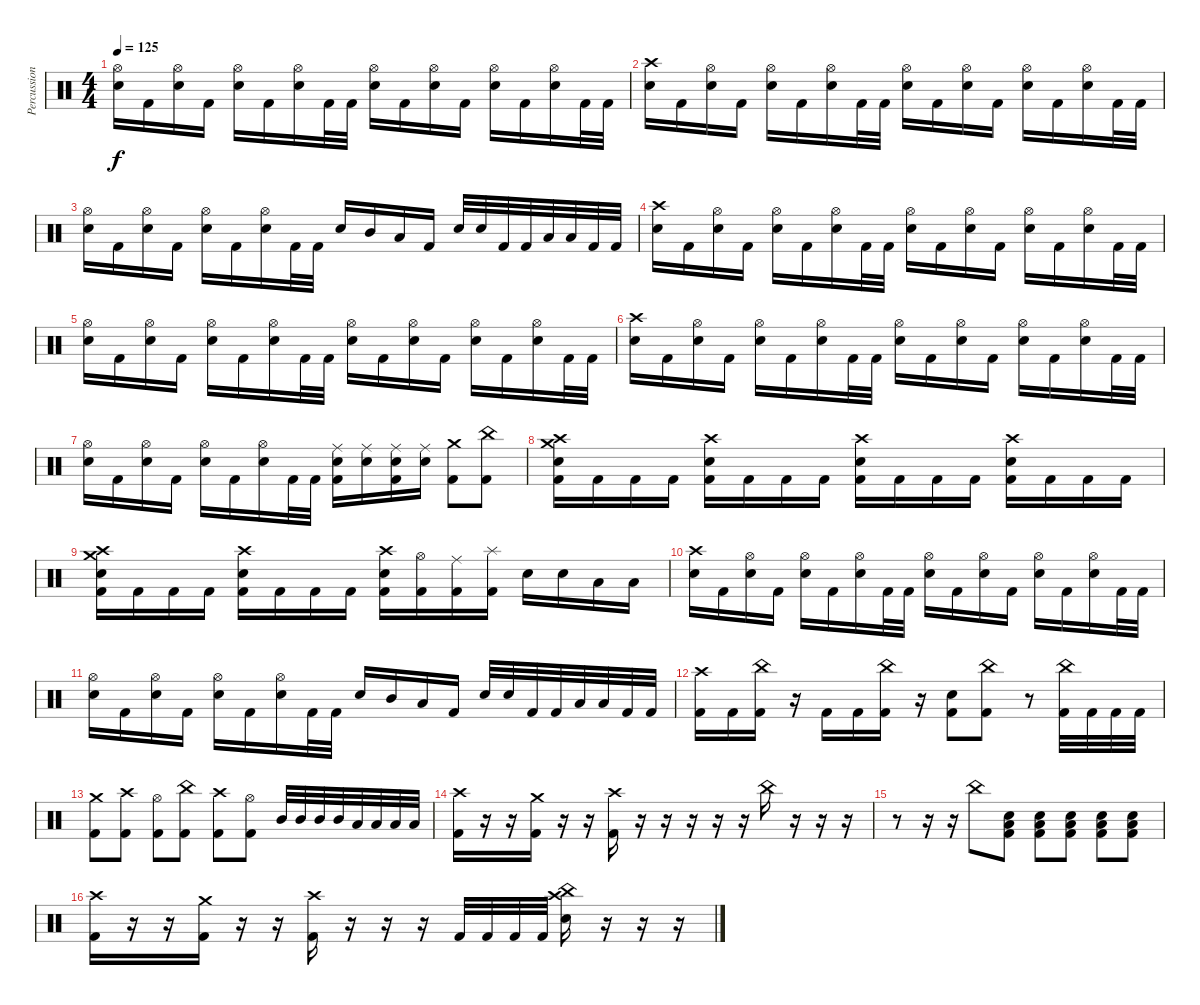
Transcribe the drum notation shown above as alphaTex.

\track ("Percussion" "Percussion") {instrument percussion}
\staff {score}
\articulation defaults
\ts (4 4)
\tempo 125
\clef neutral
\ks c
("Hi-Hat (open)" "Electric Snare (hit)").16{dy f} "Kick (hit) 2".16 ("Hi-Hat (open)" "Electric Snare (hit)").16 "Kick (hit) 2".16 ("Hi-Hat (open)" "Electric Snare (hit)").16 "Kick (hit) 2".16 ("Hi-Hat (open)" "Electric Snare (hit)").16 "Kick (hit) 2".32 "Kick (hit) 2".32 ("Hi-Hat (open)" "Electric Snare (hit)").16 "Kick (hit) 2".16 ("Hi-Hat (open)" "Electric Snare (hit)").16 "Kick (hit) 2".16 ("Hi-Hat (open)" "Electric Snare (hit)").16 "Kick (hit) 2".16 ("Hi-Hat (open)" "Electric Snare (hit)").16 "Kick (hit) 2".32 "Kick (hit) 2".32 |
("Crash high (hit)" "Electric Snare (hit)").16 "Kick (hit) 2".16 ("Hi-Hat (open)" "Electric Snare (hit)").16 "Kick (hit) 2".16 ("Hi-Hat (open)" "Electric Snare (hit)").16 "Kick (hit) 2".16 ("Hi-Hat (open)" "Electric Snare (hit)").16 "Kick (hit) 2".32 "Kick (hit) 2".32 ("Hi-Hat (open)" "Electric Snare (hit)").16 "Kick (hit) 2".16 ("Hi-Hat (open)" "Electric Snare (hit)").16 "Kick (hit) 2".16 ("Hi-Hat (open)" "Electric Snare (hit)").16 "Kick (hit) 2".16 ("Hi-Hat (open)" "Electric Snare (hit)").16 "Kick (hit) 2".32 "Kick (hit) 2".32 |
("Hi-Hat (open)" "Electric Snare (hit)").16 "Kick (hit) 2".16 ("Hi-Hat (open)" "Electric Snare (hit)").16 "Kick (hit) 2".16 ("Hi-Hat (open)" "Electric Snare (hit)").16 "Kick (hit) 2".16 ("Hi-Hat (open)" "Electric Snare (hit)").16 "Kick (hit) 2".32 "Kick (hit) 2".32 "Electric Snare (hit)".16 "Mid Tom (hit)".16 "Low Tom (hit)".16 "Kick (hit) 2".16 "Electric Snare (hit)".32 "Electric Snare (hit)".32 "Kick (hit) 2".32 "Kick (hit) 2".32 "Low Tom (hit)".32 "Low Tom (hit)".32 "Kick (hit) 2".32 "Kick (hit) 2".32 |
("Crash high (hit)" "Electric Snare (hit)").16 "Kick (hit) 2".16 ("Hi-Hat (open)" "Electric Snare (hit)").16 "Kick (hit) 2".16 ("Hi-Hat (open)" "Electric Snare (hit)").16 "Kick (hit) 2".16 ("Hi-Hat (open)" "Electric Snare (hit)").16 "Kick (hit) 2".32 "Kick (hit) 2".32 ("Hi-Hat (open)" "Electric Snare (hit)").16 "Kick (hit) 2".16 ("Hi-Hat (open)" "Electric Snare (hit)").16 "Kick (hit) 2".16 ("Hi-Hat (open)" "Electric Snare (hit)").16 "Kick (hit) 2".16 ("Hi-Hat (open)" "Electric Snare (hit)").16 "Kick (hit) 2".32 "Kick (hit) 2".32 |
("Hi-Hat (open)" "Electric Snare (hit)").16 "Kick (hit) 2".16 ("Hi-Hat (open)" "Electric Snare (hit)").16 "Kick (hit) 2".16 ("Hi-Hat (open)" "Electric Snare (hit)").16 "Kick (hit) 2".16 ("Hi-Hat (open)" "Electric Snare (hit)").16 "Kick (hit) 2".32 "Kick (hit) 2".32 ("Hi-Hat (open)" "Electric Snare (hit)").16 "Kick (hit) 2".16 ("Hi-Hat (open)" "Electric Snare (hit)").16 "Kick (hit) 2".16 ("Hi-Hat (open)" "Electric Snare (hit)").16 "Kick (hit) 2".16 ("Hi-Hat (open)" "Electric Snare (hit)").16 "Kick (hit) 2".32 "Kick (hit) 2".32 |
("Crash high (hit)" "Electric Snare (hit)").16 "Kick (hit) 2".16 ("Hi-Hat (open)" "Electric Snare (hit)").16 "Kick (hit) 2".16 ("Hi-Hat (open)" "Electric Snare (hit)").16 "Kick (hit) 2".16 ("Hi-Hat (open)" "Electric Snare (hit)").16 "Kick (hit) 2".32 "Kick (hit) 2".32 ("Hi-Hat (open)" "Electric Snare (hit)").16 "Kick (hit) 2".16 ("Hi-Hat (open)" "Electric Snare (hit)").16 "Kick (hit) 2".16 ("Hi-Hat (open)" "Electric Snare (hit)").16 "Kick (hit) 2".16 ("Hi-Hat (open)" "Electric Snare (hit)").16 "Kick (hit) 2".32 "Kick (hit) 2".32 |
("Hi-Hat (open)" "Electric Snare (hit)").16 "Kick (hit) 2".16 ("Hi-Hat (open)" "Electric Snare (hit)").16 "Kick (hit) 2".16 ("Hi-Hat (open)" "Electric Snare (hit)").16 "Kick (hit) 2".16 ("Hi-Hat (open)" "Electric Snare (hit)").16 "Kick (hit) 2".32 "Kick (hit) 2".32 ("Ride (middle)" "Electric Snare (hit)" "Kick (hit) 2").16 ("Ride (middle)" "Electric Snare (hit)").16 ("Ride (middle)" "Electric Snare (hit)" "Kick (hit) 2").16 ("Ride (middle)" "Electric Snare (hit)").16 ("Crash medium (hit)" "Kick (hit) 2").8 ("China (hit)" "Kick (hit) 2").8 |
("Crash high (hit)" "Crash medium (hit)" "Electric Snare (hit)" "Kick (hit) 2").16 "Kick (hit) 2".16 "Kick (hit) 2".16 "Kick (hit) 2".16 ("Crash high (hit)" "Electric Snare (hit)" "Kick (hit) 2").16 "Kick (hit) 2".16 "Kick (hit) 2".16 "Kick (hit) 2".16 ("Crash high (hit)" "Electric Snare (hit)" "Kick (hit) 2").16 "Kick (hit) 2".16 "Kick (hit) 2".16 "Kick (hit) 2".16 ("Crash high (hit)" "Electric Snare (hit)" "Kick (hit) 2").16 "Kick (hit) 2".16 "Kick (hit) 2".16 "Kick (hit) 2".16 |
("Crash high (hit)" "Crash medium (hit)" "Electric Snare (hit)" "Kick (hit) 2").16 "Kick (hit) 2".16 "Kick (hit) 2".16 "Kick (hit) 2".16 ("Crash high (hit)" "Electric Snare (hit)" "Kick (hit) 2").16 "Kick (hit) 2".16 "Kick (hit) 2".16 "Kick (hit) 2".16 ("Crash high (hit)" "Electric Snare (hit)" "Kick (hit) 2").16 ("Hi-Hat (open)" "Kick (hit) 2").16 ("Ride (middle)" "Kick (hit) 2").16 ("Splash (hit)" "Kick (hit) 2").16 "Electric Snare (hit)".16 "Electric Snare (hit)".16 "Low Tom (hit)".16 "Low Tom (hit)".16 |
("Crash high (hit)" "Electric Snare (hit)").16 "Kick (hit) 2".16 ("Hi-Hat (open)" "Electric Snare (hit)").16 "Kick (hit) 2".16 ("Hi-Hat (open)" "Electric Snare (hit)").16 "Kick (hit) 2".16 ("Hi-Hat (open)" "Electric Snare (hit)").16 "Kick (hit) 2".32 "Kick (hit) 2".32 ("Hi-Hat (open)" "Electric Snare (hit)").16 "Kick (hit) 2".16 ("Hi-Hat (open)" "Electric Snare (hit)").16 "Kick (hit) 2".16 ("Hi-Hat (open)" "Electric Snare (hit)").16 "Kick (hit) 2".16 ("Hi-Hat (open)" "Electric Snare (hit)").16 "Kick (hit) 2".32 "Kick (hit) 2".32 |
("Hi-Hat (open)" "Electric Snare (hit)").16 "Kick (hit) 2".16 ("Hi-Hat (open)" "Electric Snare (hit)").16 "Kick (hit) 2".16 ("Hi-Hat (open)" "Electric Snare (hit)").16 "Kick (hit) 2".16 ("Hi-Hat (open)" "Electric Snare (hit)").16 "Kick (hit) 2".32 "Kick (hit) 2".32 "Electric Snare (hit)".16 "Mid Tom (hit)".16 "Low Tom (hit)".16 "Kick (hit) 2".16 "Electric Snare (hit)".32 "Electric Snare (hit)".32 "Kick (hit) 2".32 "Kick (hit) 2".32 "Low Tom (hit)".32 "Low Tom (hit)".32 "Kick (hit) 2".32 "Kick (hit) 2".32 |
("Crash high (hit)" "Kick (hit) 2").16 "Kick (hit) 2".16 ("China (hit)" "Kick (hit) 2").16 r.16 "Kick (hit) 2".16 "Kick (hit) 2".16 ("China (hit)" "Kick (hit) 2").16 r.16 ("Electric Snare (hit)" "Kick (hit) 2").8 ("China (hit)" "Kick (hit) 2").8 r.8 ("China (hit)" "Kick (hit) 2").32 "Kick (hit) 2".32 "Kick (hit) 2".32 "Kick (hit) 2".32 |
("Crash medium (hit)" "Kick (hit) 2").8 ("Crash high (hit)" "Kick (hit) 2").8 ("Hi-Hat (open)" "Kick (hit) 2").8 ("China (hit)" "Kick (hit) 2").8 ("Crash high (hit)" "Kick (hit) 2").8 ("Hi-Hat (open)" "Kick (hit) 2").8 "Mid Tom (hit)".32 "Mid Tom (hit)".32 "Mid Tom (hit)".32 "Mid Tom (hit)".32 "Low Tom (hit)".32 "Low Tom (hit)".32 "Low Tom (hit)".32 "Low Tom (hit)".32 |
("Crash high (hit)" "Kick (hit) 2").16 r.16 r.16 ("Crash medium (hit)" "Kick (hit) 2").16 r.16 r.16 ("Crash high (hit)" "Kick (hit) 2").16 r.16 r.16 r.16 r.16 r.16 "China (hit)".16 r.16 r.16 r.16 |
r.8 r.16 r.16 "China (hit)".8 ("Low Floor Tom (hit)" "Electric Snare (hit)" "Kick (hit) 2").8 ("Low Floor Tom (hit)" "Electric Snare (hit)" "Kick (hit) 2").8 ("Low Floor Tom (hit)" "Electric Snare (hit)" "Kick (hit) 2").8 ("Low Floor Tom (hit)" "Electric Snare (hit)" "Kick (hit) 2").8 ("Low Floor Tom (hit)" "Electric Snare (hit)" "Kick (hit) 2").8 |
("Crash high (hit)" "Kick (hit) 2").16 r.16 r.16 ("Crash medium (hit)" "Kick (hit) 2").16 r.16 r.16 ("Crash high (hit)" "Kick (hit) 2").16 r.16 r.16 r.16 "Kick (hit) 2".32 "Kick (hit) 2".32 "Kick (hit) 2".32 "Kick (hit) 2".32 ("Crash high (hit)" "China (hit)" "Electric Snare (hit)").16 r.16 r.16 r.16
